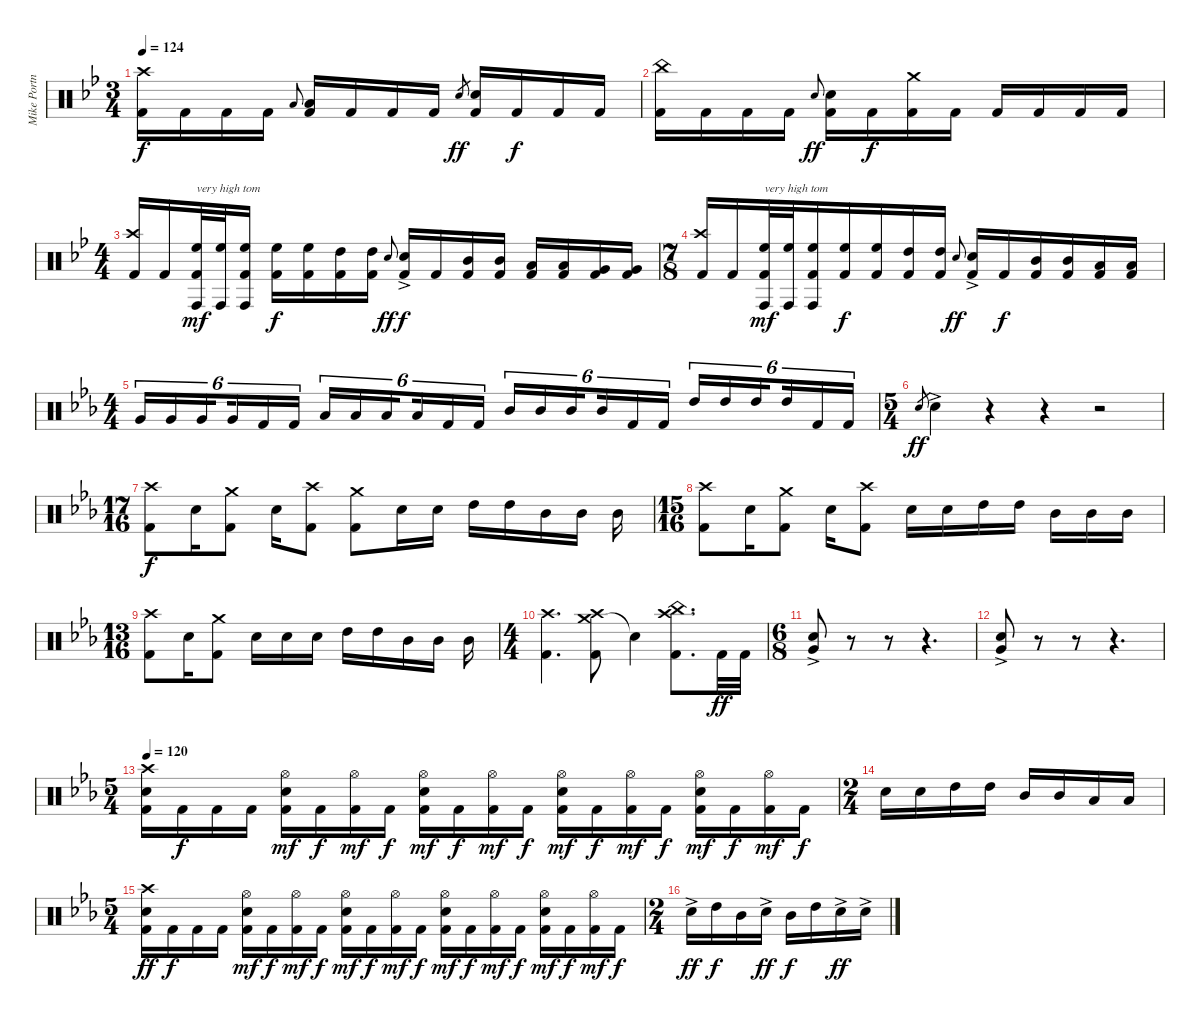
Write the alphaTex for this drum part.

\track ("Mike Portnoy" "Mike Portn") {instrument percussion}
\staff {score}
\articulation defaults
\ts (3 4)
\tempo 124
\clef neutral
\ks bb
("Crash high (hit)" "Kick (hit) 2").16{dy f} "Kick (hit) 2".16 "Kick (hit) 2".16 "Kick (hit) 2".16 "Low Tom (hit)".8{gr onbeat} ("Low Tom (hit)" "Kick (hit) 2").16 "Kick (hit) 2".16 "Kick (hit) 2".16 "Kick (hit) 2".16 "Electric Snare (hit)".8{gr dy ff} ("Electric Snare (hit)" "Kick (hit) 2").16 "Kick (hit) 2".16{dy f} "Kick (hit) 2".16 "Kick (hit) 2".16 |
("China (hit)" "Kick (hit) 2").16 "Kick (hit) 2".16 "Kick (hit) 2".16 "Kick (hit) 2".16 "Electric Snare (hit)".8{gr onbeat dy ff} ("Electric Snare (hit)" "Kick (hit) 2").16 "Kick (hit) 2".16{dy f} ("Crash medium (hit)" "Kick (hit) 2").16 "Kick (hit) 2".16 "Kick (hit) 2".16 "Kick (hit) 2".16 "Kick (hit) 2".16 "Kick (hit) 2".16 |
\ts (4 4)
("Crash high (hit)" "Kick (hit) 2").16 "Kick (hit) 2".16 ("High Floor Tom (hit)" "Conga high (hit)" "Kick (hit) 2").32{txt "very high tom" dy mf} ("High Floor Tom (hit)" "Conga high (hit)").32 ("High Floor Tom (hit)" "Conga high (hit)" "Kick (hit) 2").16 ("High Floor Tom (hit)" "Kick (hit) 2").16{dy f} ("High Floor Tom (hit)" "Kick (hit) 2").16 ("High Tom (hit)" "Kick (hit) 2").16 ("High Tom (hit)" "Kick (hit) 2").16 "Electric Snare (hit)".8{gr onbeat dy ff} ("Electric Snare (hit)"{ac} "Kick (hit) 2").16{dy f} "Kick (hit) 2".16 ("Mid Tom (hit)" "Kick (hit) 2").16 ("Mid Tom (hit)" "Kick (hit) 2").16 ("Low Tom (hit)" "Kick (hit) 2").16 ("Low Tom (hit)" "Kick (hit) 2").16 ("Very Low Tom (hit)" "Kick (hit) 2").16 ("Very Low Tom (hit)" "Kick (hit) 2").16 |
\ts (7 8)
("Crash high (hit)" "Kick (hit) 2").16 "Kick (hit) 2".16 ("High Floor Tom (hit)" "Conga high (hit)" "Kick (hit) 2").32{txt "very high tom" dy mf} ("High Floor Tom (hit)" "Conga high (hit)").32 ("High Floor Tom (hit)" "Conga high (hit)" "Kick (hit) 2").16 ("High Floor Tom (hit)" "Kick (hit) 2").16{dy f} ("High Floor Tom (hit)" "Kick (hit) 2").16 ("High Tom (hit)" "Kick (hit) 2").16 ("High Tom (hit)" "Kick (hit) 2").16 "Electric Snare (hit)".8{gr onbeat dy ff} ("Electric Snare (hit)"{ac} "Kick (hit) 2").16 "Kick (hit) 2".16{dy f} ("Mid Tom (hit)" "Kick (hit) 2").16 ("Mid Tom (hit)" "Kick (hit) 2").16 ("Low Tom (hit)" "Kick (hit) 2").16 ("Low Tom (hit)" "Kick (hit) 2").16 |
\ts (4 4)
\ks eb "Very Low Tom (hit)".16{tu (6 4)} "Very Low Tom (hit)".16{tu (6 4)} "Very Low Tom (hit)".16{tu (6 4) beam splitsecondary} "Very Low Tom (hit)".16{tu (6 4)} "Kick (hit) 2".16{tu (6 4)} "Kick (hit) 2".16{tu (6 4)} "Low Tom (hit)".16{tu (6 4)} "Low Tom (hit)".16{tu (6 4)} "Low Tom (hit)".16{tu (6 4) beam splitsecondary} "Low Tom (hit)".16{tu (6 4)} "Kick (hit) 2".16{tu (6 4)} "Kick (hit) 2".16{tu (6 4)} "Mid Tom (hit)".16{tu (6 4)} "Mid Tom (hit)".16{tu (6 4)} "Mid Tom (hit)".16{tu (6 4) beam splitsecondary} "Mid Tom (hit)".16{tu (6 4)} "Kick (hit) 2".16{tu (6 4)} "Kick (hit) 2".16{tu (6 4)} "High Tom (hit)".16{tu (6 4)} "High Tom (hit)".16{tu (6 4)} "High Tom (hit)".16{tu (6 4) beam splitsecondary} "High Tom (hit)".16{tu (6 4)} "Kick (hit) 2".16{tu (6 4)} "Kick (hit) 2".16{tu (6 4)}
|
\ts (5 4)
"Electric Snare (hit)".8{gr dy ff} "Electric Snare (hit)"{ac}.4 r.4 r.4 r.2 |
\ts (17 16)
("Crash high (hit)" "Kick (hit) 2").8{dy f} "Electric Snare (hit)".16 ("Crash medium (hit)" "Kick (hit) 2").8 "Electric Snare (hit)".16 ("Crash high (hit)" "Kick (hit) 2").8 ("Crash medium (hit)" "Kick (hit) 2").8 "Electric Snare (hit)".16 "Electric Snare (hit)".16 "High Tom (hit)".16 "High Tom (hit)".16 "Mid Tom (hit)".16 "Mid Tom (hit)".16 "Mid Tom (hit)".16 |
\ts (15 16)
("Crash high (hit)" "Kick (hit) 2").8 "Electric Snare (hit)".16 ("Crash medium (hit)" "Kick (hit) 2").8 "Electric Snare (hit)".16 ("Crash high (hit)" "Kick (hit) 2").8 "Electric Snare (hit)".16 "Electric Snare (hit)".16 "High Tom (hit)".16 "High Tom (hit)".16 "Mid Tom (hit)".16 "Mid Tom (hit)".16 "Mid Tom (hit)".16 |
\ts (13 16)
("Crash high (hit)" "Kick (hit) 2").8 "Electric Snare (hit)".16 ("Crash medium (hit)" "Kick (hit) 2").8 "Electric Snare (hit)".16 "Electric Snare (hit)".16 "Electric Snare (hit)".16 "High Tom (hit)".16 "High Tom (hit)".16 "Mid Tom (hit)".16 "Mid Tom (hit)".16 "Mid Tom (hit)".16 |
\ts (4 4)
("Crash high (hit)" "Kick (hit) 2").4{d} ("Crash medium (hit)" "Crash high (hit)" "Kick (hit) 2").8 "Snare (hit)"{t}.4 ("China (hit)" "Crash high (hit)" "Kick (hit) 2").8{d} "Kick (hit) 2".32{dy ff} "Kick (hit) 2".32 |
\ts (6 8)
("Very Low Tom (hit)"{ac} "Electric Snare (hit)"{ac}).8 r.8 r.8 r.4{d} |
("Very Low Tom (hit)"{ac} "Electric Snare (hit)"{ac}).8 r.8 r.8 r.4{d} |
\ts (5 4)
\tempo 120
("Crash high (hit)" "Electric Snare (hit)" "Kick (hit) 2").16 "Kick (hit) 2".16{dy f} "Kick (hit) 2".16 "Kick (hit) 2".16 ("Hi-Hat (open)" "Electric Snare (hit)" "Kick (hit) 2").16{dy mf} "Kick (hit) 2".16{dy f} ("Hi-Hat (open)" "Kick (hit) 2").16{dy mf} "Kick (hit) 2".16{dy f} ("Hi-Hat (open)" "Electric Snare (hit)" "Kick (hit) 2").16{dy mf} "Kick (hit) 2".16{dy f} ("Hi-Hat (open)" "Kick (hit) 2").16{dy mf} "Kick (hit) 2".16{dy f} ("Hi-Hat (open)" "Electric Snare (hit)" "Kick (hit) 2").16{dy mf} "Kick (hit) 2".16{dy f} ("Hi-Hat (open)" "Kick (hit) 2").16{dy mf} "Kick (hit) 2".16{dy f} ("Hi-Hat (open)" "Electric Snare (hit)" "Kick (hit) 2").16{dy mf} "Kick (hit) 2".16{dy f} ("Hi-Hat (open)" "Kick (hit) 2").16{dy mf} "Kick (hit) 2".16{dy f} |
\ts (2 4)
"Electric Snare (hit)".16 "Electric Snare (hit)".16 "High Tom (hit)".16 "High Tom (hit)".16 "Mid Tom (hit)".16 "Mid Tom (hit)".16 "Low Tom (hit)".16 "Low Tom (hit)".16 |
\ts (5 4)
("Crash high (hit)" "Electric Snare (hit)" "Kick (hit) 2").16{dy ff} "Kick (hit) 2".16{dy f} "Kick (hit) 2".16 "Kick (hit) 2".16 ("Hi-Hat (open)" "Electric Snare (hit)" "Kick (hit) 2").16{dy mf} "Kick (hit) 2".16{dy f} ("Hi-Hat (open)" "Kick (hit) 2").16{dy mf} "Kick (hit) 2".16{dy f} ("Hi-Hat (open)" "Electric Snare (hit)" "Kick (hit) 2").16{dy mf} "Kick (hit) 2".16{dy f} ("Hi-Hat (open)" "Kick (hit) 2").16{dy mf} "Kick (hit) 2".16{dy f} ("Hi-Hat (open)" "Electric Snare (hit)" "Kick (hit) 2").16{dy mf} "Kick (hit) 2".16{dy f} ("Hi-Hat (open)" "Kick (hit) 2").16{dy mf} "Kick (hit) 2".16{dy f} ("Hi-Hat (open)" "Electric Snare (hit)" "Kick (hit) 2").16{dy mf} "Kick (hit) 2".16{dy f} ("Hi-Hat (open)" "Kick (hit) 2").16{dy mf} "Kick (hit) 2".16{dy f} |
\ts (2 4)
"Electric Snare (hit)"{ac}.16{dy ff} "High Tom (hit)".16{dy f} "Mid Tom (hit)".16 "Electric Snare (hit)"{ac}.16{dy ff} "Mid Tom (hit)".16{dy f} "High Tom (hit)".16 "Electric Snare (hit)"{ac}.16{dy ff} "Electric Snare (hit)"{ac}.16
